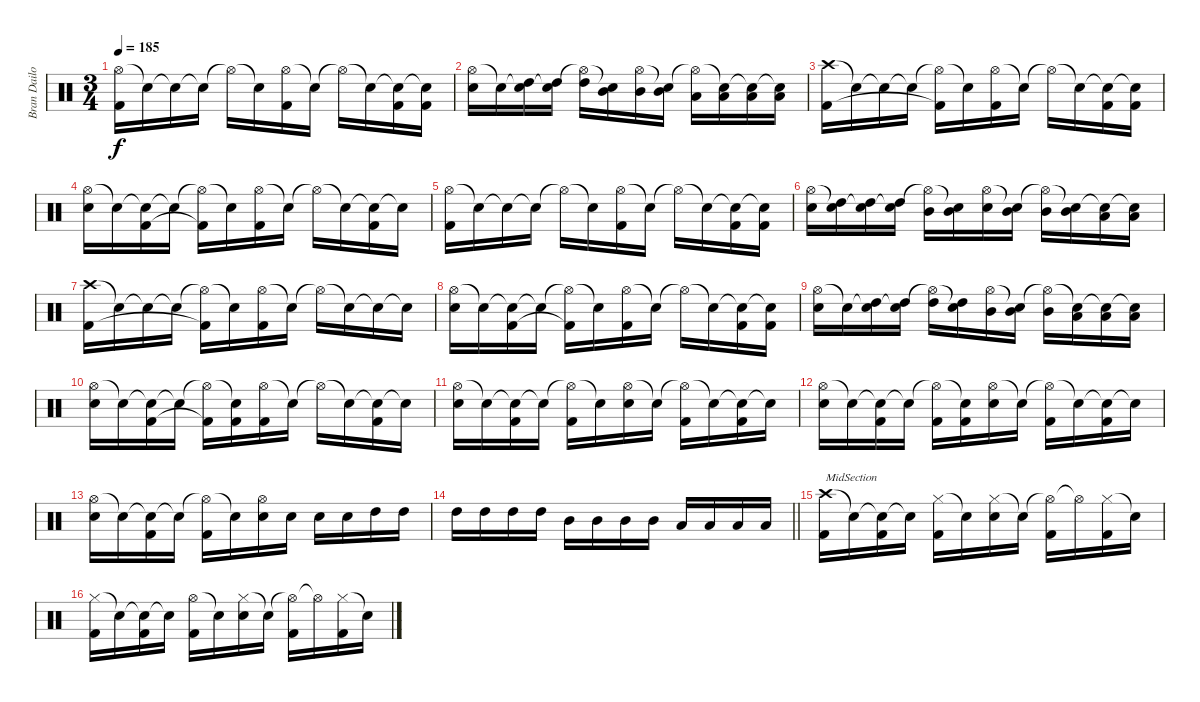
\track ("Bran Dailor" "Bran Dailo") {instrument percussion}
\staff {score}
\articulation defaults
\ts (3 4)
\tempo 185
\clef neutral
\ks c
("Hi-Hat (open)" "Kick (hit) 2").16{dy f} "Snare (hit)"{t}.16 "Snare (hit)"{t}.16 "Snare (hit)"{t}.16 "Hi-Hat (open)"{t}.16 "Snare (hit)"{t}.16 ("Hi-Hat (open)" "Kick (hit) 2").16 "Snare (hit)"{t}.16 "Hi-Hat (open)"{t}.16 "Snare (hit)"{t}.16 ("Snare (hit)"{t} "Kick (hit) 2").16 ("Snare (hit)"{t} "Kick (hit) 2").16 |
("Hi-Hat (open)" "Electric Snare (hit)").16 "Snare (hit)"{t}.16 ("Snare (hit)"{t} "High Tom (hit)").16 ("Snare (hit)"{t} "High Tom (hit)").16 ("Hi-Hat (open)"{t} "High Tom (hit)").16 ("Snare (hit)"{t} "Mid Tom (hit)").16 ("Hi-Hat (open)" "Mid Tom (hit)").16 ("Snare (hit)"{t} "Mid Tom (hit)").16 ("Hi-Hat (open)"{t} "Low Tom (hit)").16 ("Snare (hit)"{t} "Low Tom (hit)").16 ("Snare (hit)"{t} "Low Tom (hit)").16 ("Snare (hit)"{t} "Low Tom (hit)").16 |
("Crash high (hit)" "Kick (hit) 2").16 "Snare (hit)"{t}.16 "Snare (hit)"{t}.16 "Snare (hit)"{t}.16 ("Hi-Hat (open)"{t} "Kick (hit) 2"{t}).16 "Snare (hit)"{t}.16 ("Hi-Hat (open)" "Kick (hit) 2").16 "Snare (hit)"{t}.16 "Hi-Hat (open)"{t}.16 "Snare (hit)"{t}.16 ("Snare (hit)"{t} "Kick (hit) 2").16 ("Snare (hit)"{t} "Kick (hit) 2").16 |
("Hi-Hat (open)" "Electric Snare (hit)").16 "Snare (hit)"{t}.16 ("Snare (hit)"{t} "Kick (hit) 2").16 "Snare (hit)"{t}.16 ("Hi-Hat (open)"{t} "Kick (hit) 2"{t}).16 "Snare (hit)"{t}.16 ("Hi-Hat (open)" "Kick (hit) 2").16 "Snare (hit)"{t}.16 "Hi-Hat (open)"{t}.16 "Snare (hit)"{t}.16 ("Snare (hit)"{t} "Kick (hit) 2").16 "Snare (hit)"{t}.16 |
("Hi-Hat (open)" "Kick (hit) 2").16 "Snare (hit)"{t}.16 "Snare (hit)"{t}.16 "Snare (hit)"{t}.16 "Hi-Hat (open)"{t}.16 "Snare (hit)"{t}.16 ("Hi-Hat (open)" "Kick (hit) 2").16 "Snare (hit)"{t}.16 "Hi-Hat (open)"{t}.16 "Snare (hit)"{t}.16 ("Snare (hit)"{t} "Kick (hit) 2").16 ("Snare (hit)"{t} "Kick (hit) 2").16 |
("Hi-Hat (open)" "Electric Snare (hit)").16 ("Snare (hit)"{t} "High Tom (hit)").16 ("Snare (hit)"{t} "High Tom (hit)").16 ("Snare (hit)"{t} "High Tom (hit)").16 ("Hi-Hat (open)"{t} "Mid Tom (hit)").16 ("Snare (hit)"{t} "Mid Tom (hit)").16 ("Hi-Hat (open)" "Electric Snare (hit)").16 ("Snare (hit)"{t} "Mid Tom (hit)").16 ("Hi-Hat (open)"{t} "Mid Tom (hit)").16 ("Snare (hit)"{t} "Mid Tom (hit)").16 ("Snare (hit)"{t} "Low Tom (hit)").16 ("Snare (hit)"{t} "Low Tom (hit)").16 |
("Crash high (hit)" "Kick (hit) 2").16 "Snare (hit)"{t}.16 "Snare (hit)"{t}.16 "Snare (hit)"{t}.16 ("Hi-Hat (open)"{t} "Kick (hit) 2"{t}).16 "Snare (hit)"{t}.16 ("Hi-Hat (open)" "Kick (hit) 2").16 "Snare (hit)"{t}.16 "Hi-Hat (open)"{t}.16 "Snare (hit)"{t}.16 "Snare (hit)"{t}.16 "Snare (hit)"{t}.16 |
("Hi-Hat (open)" "Electric Snare (hit)").16 "Snare (hit)"{t}.16 ("Snare (hit)"{t} "Kick (hit) 2").16 "Snare (hit)"{t}.16 ("Hi-Hat (open)"{t} "Kick (hit) 2"{t}).16 "Snare (hit)"{t}.16 ("Hi-Hat (open)" "Kick (hit) 2").16 "Snare (hit)"{t}.16 "Hi-Hat (open)"{t}.16 "Snare (hit)"{t}.16 ("Snare (hit)"{t} "Kick (hit) 2").16 ("Snare (hit)"{t} "Kick (hit) 2").16 |
("Hi-Hat (open)" "Electric Snare (hit)").16 "Snare (hit)"{t}.16 ("Snare (hit)"{t} "High Tom (hit)").16 ("Snare (hit)"{t} "High Tom (hit)").16 ("Hi-Hat (open)"{t} "High Tom (hit)").16 ("Snare (hit)"{t} "High Tom (hit)").16 ("Hi-Hat (open)" "Mid Tom (hit)").16 ("Snare (hit)"{t} "Mid Tom (hit)").16 ("Hi-Hat (open)"{t} "Mid Tom (hit)").16 ("Snare (hit)"{t} "Low Tom (hit)").16 ("Snare (hit)"{t} "Low Tom (hit)").16 ("Snare (hit)"{t} "Low Tom (hit)").16 |
("Hi-Hat (open)" "Electric Snare (hit)").16 "Snare (hit)"{t}.16 ("Snare (hit)"{t} "Kick (hit) 2").16 "Snare (hit)"{t}.16 ("Hi-Hat (open)"{t} "Kick (hit) 2"{t}).16 ("Snare (hit)"{t} "Kick (hit) 2").16 ("Hi-Hat (open)" "Kick (hit) 2").16 "Snare (hit)"{t}.16 "Hi-Hat (open)"{t}.16 "Snare (hit)"{t}.16 ("Snare (hit)"{t} "Kick (hit) 2").16 "Snare (hit)"{t}.16 |
("Hi-Hat (open)" "Electric Snare (hit)").16 "Snare (hit)"{t}.16 ("Snare (hit)"{t} "Kick (hit) 2").16 "Snare (hit)"{t}.16 ("Hi-Hat (open)"{t} "Kick (hit) 2").16 "Snare (hit)"{t}.16 ("Hi-Hat (open)" "Electric Snare (hit)").16 "Snare (hit)"{t}.16 ("Hi-Hat (open)"{t} "Kick (hit) 2").16 "Snare (hit)"{t}.16 ("Snare (hit)"{t} "Kick (hit) 2").16 "Snare (hit)"{t}.16 |
("Hi-Hat (open)" "Electric Snare (hit)").16 "Snare (hit)"{t}.16 ("Snare (hit)"{t} "Kick (hit) 2").16 "Snare (hit)"{t}.16 ("Hi-Hat (open)"{t} "Kick (hit) 2").16 ("Snare (hit)"{t} "Kick (hit) 2").16 ("Hi-Hat (open)" "Electric Snare (hit)").16 "Snare (hit)"{t}.16 ("Hi-Hat (open)"{t} "Kick (hit) 2").16 "Snare (hit)"{t}.16 ("Snare (hit)"{t} "Kick (hit) 2").16 "Snare (hit)"{t}.16 |
("Hi-Hat (open)" "Electric Snare (hit)").16 "Snare (hit)"{t}.16 ("Snare (hit)"{t} "Kick (hit) 2").16 "Snare (hit)"{t}.16 ("Hi-Hat (open)"{t} "Kick (hit) 2").16 "Snare (hit)"{t}.16 ("Hi-Hat (open)" "Electric Snare (hit)").16 "Electric Snare (hit)".16 "Electric Snare (hit)".16 "Electric Snare (hit)".16 "High Tom (hit)".16 "High Tom (hit)".16 |
\barLineRight lightlight "High Tom (hit)".16 "High Tom (hit)".16 "High Tom (hit)".16 "High Tom (hit)".16 "Mid Tom (hit)".16 "Mid Tom (hit)".16 "Mid Tom (hit)".16 "Mid Tom (hit)".16 "Low Tom (hit)".16 "Low Tom (hit)".16 "Low Tom (hit)".16 "Low Tom (hit)".16
|
("Crash high (hit)" "Kick (hit) 2").16{txt "MidSection"} "Snare (hit)"{t}.16 ("Snare (hit)"{t} "Kick (hit) 2").16 "Snare (hit)"{t}.16 ("Hi-Hat (closed)" "Kick (hit) 2").16 "Snare (hit)"{t}.16 ("Hi-Hat (closed)" "Electric Snare (hit)").16 "Snare (hit)"{t}.16 ("Hi-Hat (open)"{t} "Kick (hit) 2").16 "Hi-Hat (open)"{t}.16 ("Hi-Hat (closed)" "Kick (hit) 2").16 "Snare (hit)"{t}.16 |
("Hi-Hat (closed)" "Kick (hit) 2").16 "Snare (hit)"{t}.16 ("Snare (hit)"{t} "Kick (hit) 2").16 "Snare (hit)"{t}.16 ("Hi-Hat (open)" "Kick (hit) 2").16 "Snare (hit)"{t}.16 ("Hi-Hat (closed)" "Electric Snare (hit)").16 "Snare (hit)"{t}.16 ("Hi-Hat (open)"{t} "Kick (hit) 2").16 "Hi-Hat (open)"{t}.16 ("Hi-Hat (closed)" "Kick (hit) 2").16 "Snare (hit)"{t}.16
